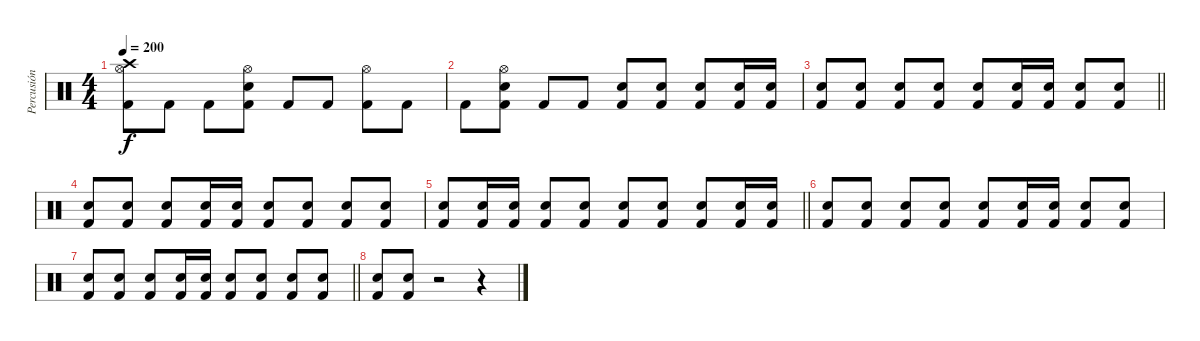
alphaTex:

\track ("Percusión" "Percusión") {instrument percussion}
\staff {score}
\articulation defaults
\ts (4 4)
\tempo 200
\clef neutral
\ks c
("Hi-Hat (open)" "Crash high (hit)" "Kick (hit) 2").8{dy f} "Kick (hit) 2".8 "Kick (hit) 2".8 ("Hi-Hat (open)" "Snare (hit) 2" "Kick (hit) 2").8 "Kick (hit) 2".8 "Kick (hit) 2".8 ("Hi-Hat (open)" "Kick (hit) 2").8 "Kick (hit) 2".8 |
"Kick (hit) 2".8 ("Hi-Hat (open)" "Snare (hit) 2" "Kick (hit) 2").8 "Kick (hit) 2".8 "Kick (hit) 2".8 ("Snare (hit) 2" "Kick (hit) 2").8 ("Snare (hit) 2" "Kick (hit) 2").8 ("Snare (hit) 2" "Kick (hit) 2").8 ("Snare (hit) 2" "Kick (hit) 2").16 ("Snare (hit) 2" "Kick (hit) 2").16 |
\barLineRight lightlight
("Snare (hit) 2" "Kick (hit) 2").8 ("Snare (hit) 2" "Kick (hit) 2").8 ("Snare (hit) 2" "Kick (hit) 2").8 ("Snare (hit) 2" "Kick (hit) 2").8 ("Snare (hit) 2" "Kick (hit) 2").8 ("Snare (hit) 2" "Kick (hit) 2").16 ("Snare (hit) 2" "Kick (hit) 2").16 ("Snare (hit) 2" "Kick (hit) 2").8 ("Snare (hit) 2" "Kick (hit) 2").8 |
("Snare (hit) 2" "Kick (hit) 2").8 ("Snare (hit) 2" "Kick (hit) 2").8 ("Snare (hit) 2" "Kick (hit) 2").8 ("Snare (hit) 2" "Kick (hit) 2").16 ("Snare (hit) 2" "Kick (hit) 2").16 ("Snare (hit) 2" "Kick (hit) 2").8 ("Snare (hit) 2" "Kick (hit) 2").8 ("Snare (hit) 2" "Kick (hit) 2").8 ("Snare (hit) 2" "Kick (hit) 2").8 |
\barLineRight lightlight
("Snare (hit) 2" "Kick (hit) 2").8 ("Snare (hit) 2" "Kick (hit) 2").16 ("Snare (hit) 2" "Kick (hit) 2").16 ("Snare (hit) 2" "Kick (hit) 2").8 ("Snare (hit) 2" "Kick (hit) 2").8 ("Snare (hit) 2" "Kick (hit) 2").8 ("Snare (hit) 2" "Kick (hit) 2").8 ("Snare (hit) 2" "Kick (hit) 2").8 ("Snare (hit) 2" "Kick (hit) 2").16 ("Snare (hit) 2" "Kick (hit) 2").16 |
("Snare (hit) 2" "Kick (hit) 2").8 ("Snare (hit) 2" "Kick (hit) 2").8 ("Snare (hit) 2" "Kick (hit) 2").8 ("Snare (hit) 2" "Kick (hit) 2").8 ("Snare (hit) 2" "Kick (hit) 2").8 ("Snare (hit) 2" "Kick (hit) 2").16 ("Snare (hit) 2" "Kick (hit) 2").16 ("Snare (hit) 2" "Kick (hit) 2").8 ("Snare (hit) 2" "Kick (hit) 2").8 |
\barLineRight lightlight
("Snare (hit) 2" "Kick (hit) 2").8 ("Snare (hit) 2" "Kick (hit) 2").8 ("Snare (hit) 2" "Kick (hit) 2").8 ("Snare (hit) 2" "Kick (hit) 2").16 ("Snare (hit) 2" "Kick (hit) 2").16 ("Snare (hit) 2" "Kick (hit) 2").8 ("Snare (hit) 2" "Kick (hit) 2").8 ("Snare (hit) 2" "Kick (hit) 2").8 ("Snare (hit) 2" "Kick (hit) 2").8 |
("Snare (hit) 2" "Kick (hit) 2").8 ("Snare (hit) 2" "Kick (hit) 2").8 r.2 r.4
